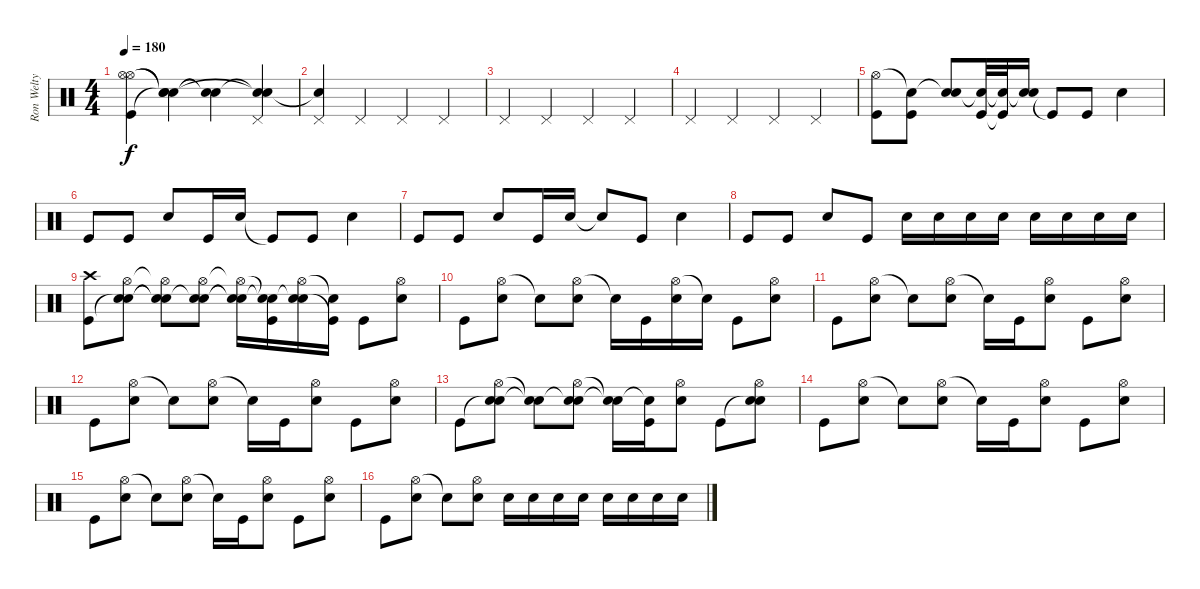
\track ("Ron Welty" "Ron Welty") {instrument percussion}
\staff {score}
\articulation defaults
\ts (4 4)
\tempo 180
\clef neutral
\ks c
("Hi-Hat (open)" "Hi-Hat (open)" "Kick (hit)").4{dy f volume 16} ("Snare (hit)"{t} "Snare (hit)"{t} "Snare (hit)"{t}).4 ("Snare (hit)"{t} "Snare (hit)"{t}).4 ("Pedal Hi-Hat (hit)" "Snare (hit)"{t} "Snare (hit)"{t}).4{volume 6} |
("Pedal Hi-Hat (hit)" "Snare (hit)"{t}).4 "Pedal Hi-Hat (hit)".4 "Pedal Hi-Hat (hit)".4 "Pedal Hi-Hat (hit)".4 |
"Pedal Hi-Hat (hit)".4 "Pedal Hi-Hat (hit)".4 "Pedal Hi-Hat (hit)".4 "Pedal Hi-Hat (hit)".4 |
"Pedal Hi-Hat (hit)".4 "Pedal Hi-Hat (hit)".4 "Pedal Hi-Hat (hit)".4 "Pedal Hi-Hat (hit)".4 |
("Hi-Hat (open)" "Kick (hit)").8{volume 10} ("Snare (hit)"{t} "Kick (hit)").8 ("Snare (hit)"{t} "Electric Snare (hit)").8 ("Snare (hit)"{t} "Kick (hit)").32 ("Snare (hit)"{t} "Kick (hit)"{t}).32 ("Snare (hit)"{t} "Electric Snare (hit)").16 "Kick (hit)"{t}.8 "Kick (hit)".8 "Electric Snare (hit)".4 |
"Kick (hit)".8 "Kick (hit)".8 "Electric Snare (hit)".8 "Kick (hit)".16 "Electric Snare (hit)".16 "Kick (hit)"{t}.8 "Kick (hit)".8 "Electric Snare (hit)".4 |
"Kick (hit)".8 "Kick (hit)".8 "Electric Snare (hit)".8 "Kick (hit)".16 "Electric Snare (hit)".16 "Snare (hit)"{t}.8 "Kick (hit)".8 "Electric Snare (hit)".4 |
"Kick (hit)".8 "Kick (hit)".8 "Electric Snare (hit)".8 "Kick (hit)".8 "Electric Snare (hit)".16 "Electric Snare (hit)".16 "Electric Snare (hit)".16 "Electric Snare (hit)".16 "Electric Snare (hit)".16 "Electric Snare (hit)".16 "Electric Snare (hit)".16 "Electric Snare (hit)".16 |
("Crash high (hit)" "Kick (hit)").8 ("Hi-Hat (open)" "Snare (hit)"{t} "Electric Snare (hit)").8 ("Hi-Hat (open)"{t} "Snare (hit)"{t} "Snare (hit)"{t}).8 ("Hi-Hat (open)" "Snare (hit)"{t} "Electric Snare (hit)").8 ("Hi-Hat (open)"{t} "Snare (hit)"{t} "Snare (hit)"{t}).16 ("Snare (hit)"{t} "Snare (hit)"{t} "Kick (hit)").16 ("Hi-Hat (open)" "Snare (hit)"{t} "Electric Snare (hit)").16 ("Snare (hit)"{t} "Kick (hit)"{t}).16 "Kick (hit)".8 ("Hi-Hat (open)" "Electric Snare (hit)").8 |
"Kick (hit)".8 ("Hi-Hat (open)" "Electric Snare (hit)").8 "Snare (hit)"{t}.8 ("Hi-Hat (open)" "Electric Snare (hit)").8 "Snare (hit)"{t}.16 "Kick (hit)".16 ("Hi-Hat (open)" "Electric Snare (hit)").16 "Snare (hit)"{t}.16 "Kick (hit)".8 ("Hi-Hat (open)" "Electric Snare (hit)").8 |
"Kick (hit)".8 ("Hi-Hat (open)" "Electric Snare (hit)").8 "Snare (hit)"{t}.8 ("Hi-Hat (open)" "Electric Snare (hit)").8 "Snare (hit)"{t}.16 "Kick (hit)".16 ("Hi-Hat (open)" "Electric Snare (hit)").8 "Kick (hit)".8 ("Hi-Hat (open)" "Electric Snare (hit)").8 |
"Kick (hit)".8 ("Hi-Hat (open)" "Electric Snare (hit)").8 "Snare (hit)"{t}.8 ("Hi-Hat (open)" "Electric Snare (hit)").8 "Snare (hit)"{t}.16 "Kick (hit)".16 ("Hi-Hat (open)" "Electric Snare (hit)").8 "Kick (hit)".8 ("Hi-Hat (open)" "Electric Snare (hit)").8 |
"Kick (hit)".8 ("Snare (hit)"{t} "Hi-Hat (open)" "Electric Snare (hit)").8 ("Snare (hit)"{t} "Snare (hit)"{t}).8 ("Snare (hit)"{t} "Hi-Hat (open)" "Electric Snare (hit)").8 ("Snare (hit)"{t} "Snare (hit)"{t}).16 ("Snare (hit)"{t} "Kick (hit)").16 ("Hi-Hat (open)" "Electric Snare (hit)").8 "Kick (hit)".8 ("Snare (hit)"{t} "Hi-Hat (open)" "Electric Snare (hit)").8 |
"Kick (hit)".8 ("Hi-Hat (open)" "Electric Snare (hit)").8 "Snare (hit)"{t}.8 ("Hi-Hat (open)" "Electric Snare (hit)").8 "Snare (hit)"{t}.16 "Kick (hit)".16 ("Hi-Hat (open)" "Electric Snare (hit)").8 "Kick (hit)".8 ("Hi-Hat (open)" "Electric Snare (hit)").8 |
"Kick (hit)".8 ("Hi-Hat (open)" "Electric Snare (hit)").8 "Snare (hit)"{t}.8 ("Hi-Hat (open)" "Electric Snare (hit)").8 "Snare (hit)"{t}.16 "Kick (hit)".16 ("Hi-Hat (open)" "Electric Snare (hit)").8 "Kick (hit)".8 ("Hi-Hat (open)" "Electric Snare (hit)").8 |
"Kick (hit)".8 ("Hi-Hat (open)" "Electric Snare (hit)").8 "Snare (hit)"{t}.8 ("Hi-Hat (open)" "Electric Snare (hit)").8 "Electric Snare (hit)".16 "Electric Snare (hit)".16 "Electric Snare (hit)".16 "Electric Snare (hit)".16 "Electric Snare (hit)".16 "Electric Snare (hit)".16 "Electric Snare (hit)".16 "Electric Snare (hit)".16
